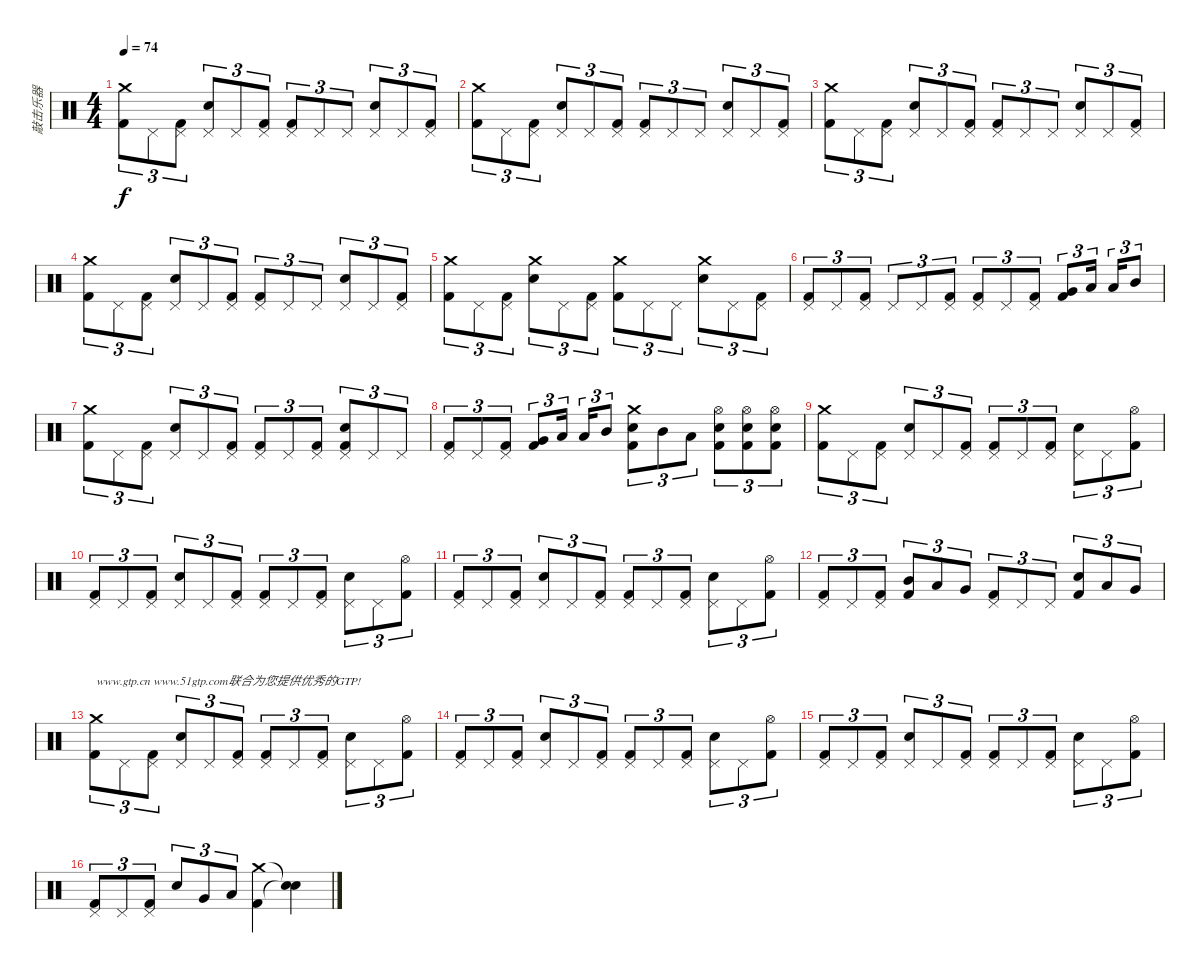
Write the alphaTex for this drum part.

\track ("敲击乐器" "敲击乐器") {instrument percussion}
\staff {score}
\articulation defaults
\ts (4 4)
\tempo 74
\clef neutral
\ks c
("Crash medium (hit)" "Kick (hit) 2").8{tu (3 2) dy f} "Pedal Hi-Hat (hit)".8{tu (3 2)} ("Pedal Hi-Hat (hit)" "Kick (hit) 2").8{tu (3 2)} ("Electric Snare (hit)" "Pedal Hi-Hat (hit)").8{tu (3 2)} "Pedal Hi-Hat (hit)".8{tu (3 2)} ("Pedal Hi-Hat (hit)" "Kick (hit) 2").8{tu (3 2)} ("Pedal Hi-Hat (hit)" "Kick (hit) 2").8{tu (3 2)} "Pedal Hi-Hat (hit)".8{tu (3 2)} "Pedal Hi-Hat (hit)".8{tu (3 2)} ("Electric Snare (hit)" "Pedal Hi-Hat (hit)").8{tu (3 2)} "Pedal Hi-Hat (hit)".8{tu (3 2)} ("Pedal Hi-Hat (hit)" "Kick (hit) 2").8{tu (3 2)} |
("Crash medium (hit)" "Kick (hit) 2").8{tu (3 2)} "Pedal Hi-Hat (hit)".8{tu (3 2)} ("Pedal Hi-Hat (hit)" "Kick (hit) 2").8{tu (3 2)} ("Electric Snare (hit)" "Pedal Hi-Hat (hit)").8{tu (3 2)} "Pedal Hi-Hat (hit)".8{tu (3 2)} ("Pedal Hi-Hat (hit)" "Kick (hit) 2").8{tu (3 2)} ("Pedal Hi-Hat (hit)" "Kick (hit) 2").8{tu (3 2)} "Pedal Hi-Hat (hit)".8{tu (3 2)} "Pedal Hi-Hat (hit)".8{tu (3 2)} ("Electric Snare (hit)" "Pedal Hi-Hat (hit)").8{tu (3 2)} "Pedal Hi-Hat (hit)".8{tu (3 2)} ("Pedal Hi-Hat (hit)" "Kick (hit) 2").8{tu (3 2)} |
("Crash medium (hit)" "Kick (hit) 2").8{tu (3 2)} "Pedal Hi-Hat (hit)".8{tu (3 2)} ("Pedal Hi-Hat (hit)" "Kick (hit) 2").8{tu (3 2)} ("Electric Snare (hit)" "Pedal Hi-Hat (hit)").8{tu (3 2)} "Pedal Hi-Hat (hit)".8{tu (3 2)} ("Pedal Hi-Hat (hit)" "Kick (hit) 2").8{tu (3 2)} ("Pedal Hi-Hat (hit)" "Kick (hit) 2").8{tu (3 2)} "Pedal Hi-Hat (hit)".8{tu (3 2)} "Pedal Hi-Hat (hit)".8{tu (3 2)} ("Electric Snare (hit)" "Pedal Hi-Hat (hit)").8{tu (3 2)} "Pedal Hi-Hat (hit)".8{tu (3 2)} ("Pedal Hi-Hat (hit)" "Kick (hit) 2").8{tu (3 2)} |
("Crash medium (hit)" "Kick (hit) 2").8{tu (3 2)} "Pedal Hi-Hat (hit)".8{tu (3 2)} ("Pedal Hi-Hat (hit)" "Kick (hit) 2").8{tu (3 2)} ("Electric Snare (hit)" "Pedal Hi-Hat (hit)").8{tu (3 2)} "Pedal Hi-Hat (hit)".8{tu (3 2)} ("Pedal Hi-Hat (hit)" "Kick (hit) 2").8{tu (3 2)} ("Pedal Hi-Hat (hit)" "Kick (hit) 2").8{tu (3 2)} "Pedal Hi-Hat (hit)".8{tu (3 2)} "Pedal Hi-Hat (hit)".8{tu (3 2)} ("Electric Snare (hit)" "Pedal Hi-Hat (hit)").8{tu (3 2)} "Pedal Hi-Hat (hit)".8{tu (3 2)} ("Pedal Hi-Hat (hit)" "Kick (hit) 2").8{tu (3 2)} |
("Crash medium (hit)" "Kick (hit) 2").8{tu (3 2)} "Pedal Hi-Hat (hit)".8{tu (3 2)} ("Pedal Hi-Hat (hit)" "Kick (hit) 2").8{tu (3 2)} ("Electric Snare (hit)" "Crash medium (hit)").8{tu (3 2)} "Pedal Hi-Hat (hit)".8{tu (3 2)} ("Pedal Hi-Hat (hit)" "Kick (hit) 2").8{tu (3 2)} ("Crash medium (hit)" "Kick (hit) 2").8{tu (3 2)} "Pedal Hi-Hat (hit)".8{tu (3 2)} "Pedal Hi-Hat (hit)".8{tu (3 2)} ("Electric Snare (hit)" "Crash medium (hit)").8{tu (3 2)} "Pedal Hi-Hat (hit)".8{tu (3 2)} ("Pedal Hi-Hat (hit)" "Kick (hit) 2").8{tu (3 2)} |
("Pedal Hi-Hat (hit)" "Kick (hit) 2").8{tu (3 2)} "Pedal Hi-Hat (hit)".8{tu (3 2)} ("Pedal Hi-Hat (hit)" "Kick (hit) 2").8{tu (3 2)} "Pedal Hi-Hat (hit)".8{tu (3 2)} "Pedal Hi-Hat (hit)".8{tu (3 2)} ("Pedal Hi-Hat (hit)" "Kick (hit) 2").8{tu (3 2)} ("Pedal Hi-Hat (hit)" "Kick (hit) 2").8{tu (3 2)} "Pedal Hi-Hat (hit)".8{tu (3 2)} ("Pedal Hi-Hat (hit)" "Kick (hit) 2").8{tu (3 2)} ("Very Low Tom (hit)" "Kick (hit) 2").8{tu (3 2)} "Low Tom (hit)".16{tu (3 2) beam splitsecondary} "Low Tom (hit)".16{tu (3 2)} "Mid Tom (hit)".8{tu (3 2)} |
("Crash medium (hit)" "Kick (hit) 2").8{tu (3 2)} "Pedal Hi-Hat (hit)".8{tu (3 2)} ("Pedal Hi-Hat (hit)" "Kick (hit) 2").8{tu (3 2)} ("Electric Snare (hit)" "Pedal Hi-Hat (hit)").8{tu (3 2)} "Pedal Hi-Hat (hit)".8{tu (3 2)} ("Pedal Hi-Hat (hit)" "Kick (hit) 2").8{tu (3 2)} ("Pedal Hi-Hat (hit)" "Kick (hit) 2").8{tu (3 2)} "Pedal Hi-Hat (hit)".8{tu (3 2)} ("Pedal Hi-Hat (hit)" "Kick (hit) 2").8{tu (3 2)} ("Electric Snare (hit)" "Pedal Hi-Hat (hit)" "Kick (hit) 2").8{tu (3 2)} "Pedal Hi-Hat (hit)".8{tu (3 2)} "Pedal Hi-Hat (hit)".8{tu (3 2)} |
("Pedal Hi-Hat (hit)" "Kick (hit) 2").8{tu (3 2)} "Pedal Hi-Hat (hit)".8{tu (3 2)} ("Pedal Hi-Hat (hit)" "Kick (hit) 2").8{tu (3 2)} ("Very Low Tom (hit)" "Kick (hit) 2").8{tu (3 2)} "Low Tom (hit)".16{tu (3 2) beam splitsecondary} "Low Tom (hit)".16{tu (3 2)} "Mid Tom (hit)".8{tu (3 2)} ("Electric Snare (hit)" "Crash medium (hit)" "Kick (hit) 2").8{tu (3 2)} "Mid Tom (hit)".8{tu (3 2)} "Low Tom (hit)".8{tu (3 2)} ("Electric Snare (hit)" "Hi-Hat (open)" "Kick (hit) 2").8{tu (3 2)} ("Electric Snare (hit)" "Hi-Hat (open)" "Kick (hit) 2").8{tu (3 2)} ("Electric Snare (hit)" "Hi-Hat (open)" "Kick (hit) 2").8{tu (3 2)} |
("Crash medium (hit)" "Kick (hit) 2").8{tu (3 2)} "Pedal Hi-Hat (hit)".8{tu (3 2)} ("Pedal Hi-Hat (hit)" "Kick (hit) 2").8{tu (3 2)} ("Electric Snare (hit)" "Pedal Hi-Hat (hit)").8{tu (3 2)} "Pedal Hi-Hat (hit)".8{tu (3 2)} ("Pedal Hi-Hat (hit)" "Kick (hit) 2").8{tu (3 2)} ("Pedal Hi-Hat (hit)" "Kick (hit) 2").8{tu (3 2)} "Pedal Hi-Hat (hit)".8{tu (3 2)} ("Pedal Hi-Hat (hit)" "Kick (hit) 2").8{tu (3 2)} ("Electric Snare (hit)" "Pedal Hi-Hat (hit)").8{tu (3 2)} "Pedal Hi-Hat (hit)".8{tu (3 2)} ("Hi-Hat (open)" "Kick (hit) 2").8{tu (3 2)} |
("Pedal Hi-Hat (hit)" "Kick (hit) 2").8{tu (3 2)} "Pedal Hi-Hat (hit)".8{tu (3 2)} ("Pedal Hi-Hat (hit)" "Kick (hit) 2").8{tu (3 2)} ("Electric Snare (hit)" "Pedal Hi-Hat (hit)").8{tu (3 2)} "Pedal Hi-Hat (hit)".8{tu (3 2)} ("Pedal Hi-Hat (hit)" "Kick (hit) 2").8{tu (3 2)} ("Pedal Hi-Hat (hit)" "Kick (hit) 2").8{tu (3 2)} "Pedal Hi-Hat (hit)".8{tu (3 2)} ("Pedal Hi-Hat (hit)" "Kick (hit) 2").8{tu (3 2)} ("Electric Snare (hit)" "Pedal Hi-Hat (hit)").8{tu (3 2)} "Pedal Hi-Hat (hit)".8{tu (3 2)} ("Hi-Hat (open)" "Kick (hit) 2").8{tu (3 2)} |
("Pedal Hi-Hat (hit)" "Kick (hit) 2").8{tu (3 2)} "Pedal Hi-Hat (hit)".8{tu (3 2)} ("Pedal Hi-Hat (hit)" "Kick (hit) 2").8{tu (3 2)} ("Electric Snare (hit)" "Pedal Hi-Hat (hit)").8{tu (3 2)} "Pedal Hi-Hat (hit)".8{tu (3 2)} ("Pedal Hi-Hat (hit)" "Kick (hit) 2").8{tu (3 2)} ("Pedal Hi-Hat (hit)" "Kick (hit) 2").8{tu (3 2)} "Pedal Hi-Hat (hit)".8{tu (3 2)} ("Pedal Hi-Hat (hit)" "Kick (hit) 2").8{tu (3 2)} ("Electric Snare (hit)" "Pedal Hi-Hat (hit)").8{tu (3 2)} "Pedal Hi-Hat (hit)".8{tu (3 2)} ("Hi-Hat (open)" "Kick (hit) 2").8{tu (3 2)} |
("Pedal Hi-Hat (hit)" "Kick (hit) 2").8{tu (3 2)} "Pedal Hi-Hat (hit)".8{tu (3 2)} ("Pedal Hi-Hat (hit)" "Kick (hit) 2").8{tu (3 2)} ("Mid Tom (hit)" "Kick (hit) 2").8{tu (3 2)} "Low Tom (hit)".8{tu (3 2)} "Very Low Tom (hit)".8{tu (3 2)} ("Pedal Hi-Hat (hit)" "Kick (hit) 2").8{tu (3 2)} "Pedal Hi-Hat (hit)".8{tu (3 2)} "Pedal Hi-Hat (hit)".8{tu (3 2)} ("Electric Snare (hit)" "Kick (hit) 2").8{tu (3 2)} "Low Tom (hit)".8{tu (3 2)} "Very Low Tom (hit)".8{tu (3 2)} |
("Crash medium (hit)" "Kick (hit) 2").8{tu (3 2) txt "www.gtp.cn www.51gtp.com联合为您提供优秀的GTP!"} "Pedal Hi-Hat (hit)".8{tu (3 2)} ("Pedal Hi-Hat (hit)" "Kick (hit) 2").8{tu (3 2)} ("Electric Snare (hit)" "Pedal Hi-Hat (hit)").8{tu (3 2)} "Pedal Hi-Hat (hit)".8{tu (3 2)} ("Pedal Hi-Hat (hit)" "Kick (hit) 2").8{tu (3 2)} ("Pedal Hi-Hat (hit)" "Kick (hit) 2").8{tu (3 2)} "Pedal Hi-Hat (hit)".8{tu (3 2)} ("Pedal Hi-Hat (hit)" "Kick (hit) 2").8{tu (3 2)} ("Electric Snare (hit)" "Pedal Hi-Hat (hit)").8{tu (3 2)} "Pedal Hi-Hat (hit)".8{tu (3 2)} ("Hi-Hat (open)" "Kick (hit) 2").8{tu (3 2)} |
("Pedal Hi-Hat (hit)" "Kick (hit) 2").8{tu (3 2)} "Pedal Hi-Hat (hit)".8{tu (3 2)} ("Pedal Hi-Hat (hit)" "Kick (hit) 2").8{tu (3 2)} ("Electric Snare (hit)" "Pedal Hi-Hat (hit)").8{tu (3 2)} "Pedal Hi-Hat (hit)".8{tu (3 2)} ("Pedal Hi-Hat (hit)" "Kick (hit) 2").8{tu (3 2)} ("Pedal Hi-Hat (hit)" "Kick (hit) 2").8{tu (3 2)} "Pedal Hi-Hat (hit)".8{tu (3 2)} ("Pedal Hi-Hat (hit)" "Kick (hit) 2").8{tu (3 2)} ("Electric Snare (hit)" "Pedal Hi-Hat (hit)").8{tu (3 2)} "Pedal Hi-Hat (hit)".8{tu (3 2)} ("Hi-Hat (open)" "Kick (hit) 2").8{tu (3 2)} |
("Pedal Hi-Hat (hit)" "Kick (hit) 2").8{tu (3 2)} "Pedal Hi-Hat (hit)".8{tu (3 2)} ("Pedal Hi-Hat (hit)" "Kick (hit) 2").8{tu (3 2)} ("Electric Snare (hit)" "Pedal Hi-Hat (hit)").8{tu (3 2)} "Pedal Hi-Hat (hit)".8{tu (3 2)} ("Pedal Hi-Hat (hit)" "Kick (hit) 2").8{tu (3 2)} ("Pedal Hi-Hat (hit)" "Kick (hit) 2").8{tu (3 2)} "Pedal Hi-Hat (hit)".8{tu (3 2)} ("Pedal Hi-Hat (hit)" "Kick (hit) 2").8{tu (3 2)} ("Electric Snare (hit)" "Pedal Hi-Hat (hit)").8{tu (3 2)} "Pedal Hi-Hat (hit)".8{tu (3 2)} ("Hi-Hat (open)" "Kick (hit) 2").8{tu (3 2)} |
("Pedal Hi-Hat (hit)" "Kick (hit) 2").8{tu (3 2)} "Pedal Hi-Hat (hit)".8{tu (3 2)} ("Pedal Hi-Hat (hit)" "Kick (hit) 2").8{tu (3 2)} "Electric Snare (hit)".8{tu (3 2)} "Very Low Tom (hit)".8{tu (3 2)} "Low Tom (hit)".8{tu (3 2)} ("Crash medium (hit)" "Kick (hit) 2").4 ("Snare (hit)"{t} "Snare (hit)"{t}).4
